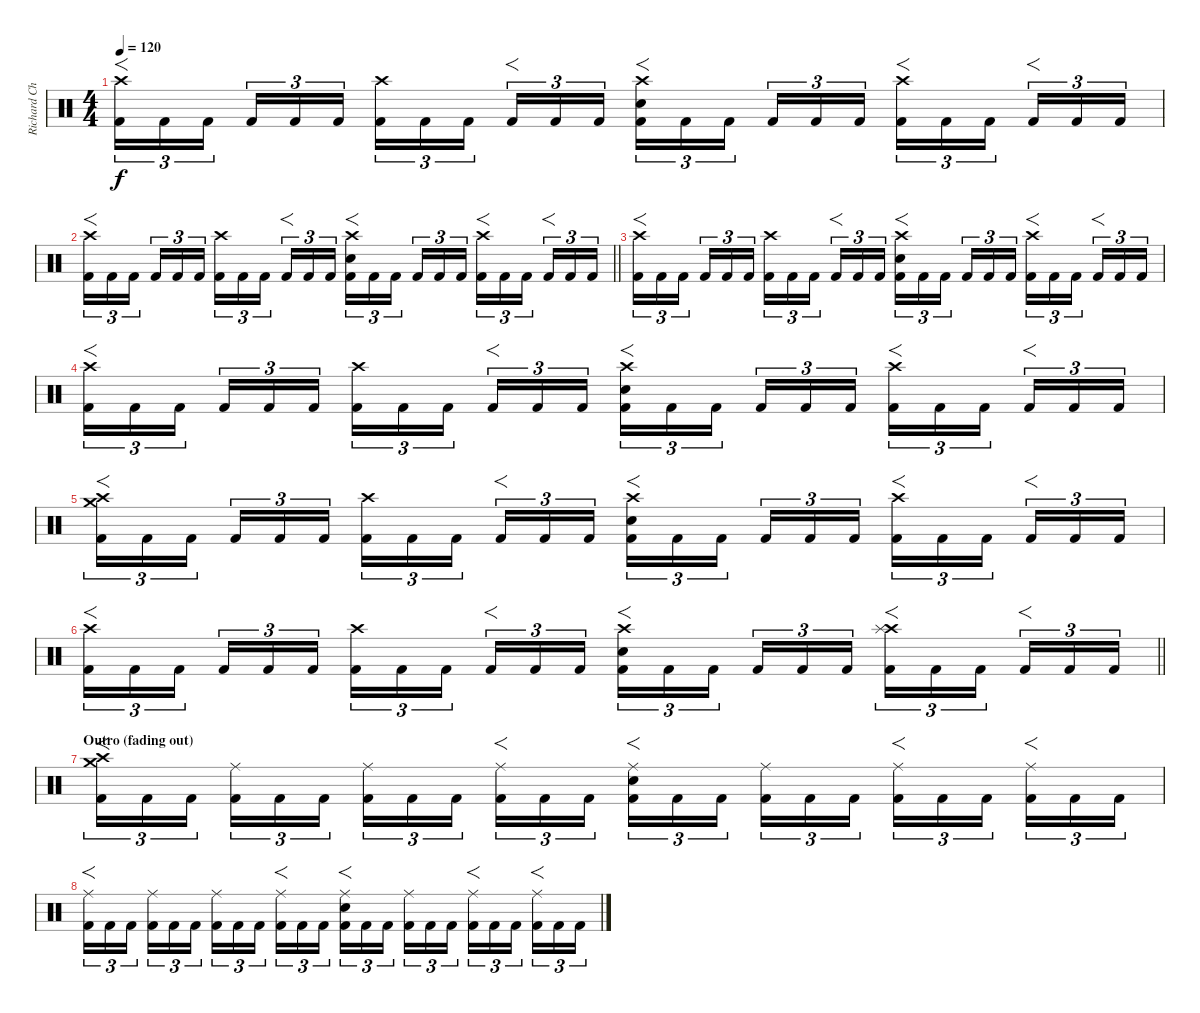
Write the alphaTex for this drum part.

\track ("Richard Christy" "Richard Ch") {instrument percussion}
\staff {score}
\articulation defaults
\ts (4 4)
\tempo 120
\clef neutral
\ks c
("Crash high (hit)" "Kick (hit) 2").16{f tu (3 2) dy f} "Kick (hit) 2".16{tu (3 2)} "Kick (hit) 2".16{tu (3 2) beam splitsecondary} "Kick (hit) 2".16{tu (3 2)} "Kick (hit) 2".16{tu (3 2)} "Kick (hit) 2".16{tu (3 2)} ("Crash high (hit)" "Kick (hit) 2").16{tu (3 2)} "Kick (hit) 2".16{tu (3 2)} "Kick (hit) 2".16{tu (3 2) beam splitsecondary} "Kick (hit) 2".16{f tu (3 2)} "Kick (hit) 2".16{tu (3 2)} "Kick (hit) 2".16{tu (3 2)} ("Crash high (hit)" "Snare (hit) 2" "Kick (hit) 2").16{f tu (3 2)} "Kick (hit) 2".16{tu (3 2)} "Kick (hit) 2".16{tu (3 2) beam splitsecondary} "Kick (hit) 2".16{tu (3 2)} "Kick (hit) 2".16{tu (3 2)} "Kick (hit) 2".16{tu (3 2)} ("Crash high (hit)" "Kick (hit) 2").16{f tu (3 2)} "Kick (hit) 2".16{tu (3 2)} "Kick (hit) 2".16{tu (3 2) beam splitsecondary} "Kick (hit) 2".16{f tu (3 2)} "Kick (hit) 2".16{tu (3 2)} "Kick (hit) 2".16{tu (3 2)} |
\barLineRight lightlight
("Crash high (hit)" "Kick (hit) 2").16{f tu (3 2)} "Kick (hit) 2".16{tu (3 2)} "Kick (hit) 2".16{tu (3 2) beam splitsecondary} "Kick (hit) 2".16{tu (3 2)} "Kick (hit) 2".16{tu (3 2)} "Kick (hit) 2".16{tu (3 2)} ("Crash high (hit)" "Kick (hit) 2").16{tu (3 2)} "Kick (hit) 2".16{tu (3 2)} "Kick (hit) 2".16{tu (3 2) beam splitsecondary} "Kick (hit) 2".16{f tu (3 2)} "Kick (hit) 2".16{tu (3 2)} "Kick (hit) 2".16{tu (3 2)} ("Crash high (hit)" "Snare (hit) 2" "Kick (hit) 2").16{f tu (3 2)} "Kick (hit) 2".16{tu (3 2)} "Kick (hit) 2".16{tu (3 2) beam splitsecondary} "Kick (hit) 2".16{tu (3 2)} "Kick (hit) 2".16{tu (3 2)} "Kick (hit) 2".16{tu (3 2)} ("Crash high (hit)" "Kick (hit) 2").16{f tu (3 2)} "Kick (hit) 2".16{tu (3 2)} "Kick (hit) 2".16{tu (3 2) beam splitsecondary} "Kick (hit) 2".16{f tu (3 2)} "Kick (hit) 2".16{tu (3 2)} "Kick (hit) 2".16{tu (3 2)} |
("Crash high (hit)" "Kick (hit) 2").16{f tu (3 2)} "Kick (hit) 2".16{tu (3 2)} "Kick (hit) 2".16{tu (3 2) beam splitsecondary} "Kick (hit) 2".16{tu (3 2)} "Kick (hit) 2".16{tu (3 2)} "Kick (hit) 2".16{tu (3 2)} ("Crash high (hit)" "Kick (hit) 2").16{tu (3 2)} "Kick (hit) 2".16{tu (3 2)} "Kick (hit) 2".16{tu (3 2) beam splitsecondary} "Kick (hit) 2".16{f tu (3 2)} "Kick (hit) 2".16{tu (3 2)} "Kick (hit) 2".16{tu (3 2)} ("Crash high (hit)" "Snare (hit) 2" "Kick (hit) 2").16{f tu (3 2)} "Kick (hit) 2".16{tu (3 2)} "Kick (hit) 2".16{tu (3 2) beam splitsecondary} "Kick (hit) 2".16{tu (3 2)} "Kick (hit) 2".16{tu (3 2)} "Kick (hit) 2".16{tu (3 2)} ("Crash high (hit)" "Kick (hit) 2").16{f tu (3 2)} "Kick (hit) 2".16{tu (3 2)} "Kick (hit) 2".16{tu (3 2) beam splitsecondary} "Kick (hit) 2".16{f tu (3 2)} "Kick (hit) 2".16{tu (3 2)} "Kick (hit) 2".16{tu (3 2)} |
("Crash high (hit)" "Kick (hit) 2").16{f tu (3 2)} "Kick (hit) 2".16{tu (3 2)} "Kick (hit) 2".16{tu (3 2) beam splitsecondary} "Kick (hit) 2".16{tu (3 2)} "Kick (hit) 2".16{tu (3 2)} "Kick (hit) 2".16{tu (3 2)} ("Crash high (hit)" "Kick (hit) 2").16{tu (3 2)} "Kick (hit) 2".16{tu (3 2)} "Kick (hit) 2".16{tu (3 2) beam splitsecondary} "Kick (hit) 2".16{f tu (3 2)} "Kick (hit) 2".16{tu (3 2)} "Kick (hit) 2".16{tu (3 2)} ("Crash high (hit)" "Snare (hit) 2" "Kick (hit) 2").16{f tu (3 2)} "Kick (hit) 2".16{tu (3 2)} "Kick (hit) 2".16{tu (3 2) beam splitsecondary} "Kick (hit) 2".16{tu (3 2)} "Kick (hit) 2".16{tu (3 2)} "Kick (hit) 2".16{tu (3 2)} ("Crash high (hit)" "Kick (hit) 2").16{f tu (3 2)} "Kick (hit) 2".16{tu (3 2)} "Kick (hit) 2".16{tu (3 2) beam splitsecondary} "Kick (hit) 2".16{f tu (3 2)} "Kick (hit) 2".16{tu (3 2)} "Kick (hit) 2".16{tu (3 2)} |
("Crash high (hit)" "Crash medium (hit)" "Kick (hit) 2").16{f tu (3 2)} "Kick (hit) 2".16{tu (3 2)} "Kick (hit) 2".16{tu (3 2) beam splitsecondary} "Kick (hit) 2".16{tu (3 2)} "Kick (hit) 2".16{tu (3 2)} "Kick (hit) 2".16{tu (3 2)} ("Crash high (hit)" "Kick (hit) 2").16{tu (3 2)} "Kick (hit) 2".16{tu (3 2)} "Kick (hit) 2".16{tu (3 2) beam splitsecondary} "Kick (hit) 2".16{f tu (3 2)} "Kick (hit) 2".16{tu (3 2)} "Kick (hit) 2".16{tu (3 2)} ("Crash high (hit)" "Snare (hit) 2" "Kick (hit) 2").16{f tu (3 2)} "Kick (hit) 2".16{tu (3 2)} "Kick (hit) 2".16{tu (3 2) beam splitsecondary} "Kick (hit) 2".16{tu (3 2)} "Kick (hit) 2".16{tu (3 2)} "Kick (hit) 2".16{tu (3 2)} ("Crash high (hit)" "Kick (hit) 2").16{f tu (3 2)} "Kick (hit) 2".16{tu (3 2)} "Kick (hit) 2".16{tu (3 2) beam splitsecondary} "Kick (hit) 2".16{f tu (3 2)} "Kick (hit) 2".16{tu (3 2)} "Kick (hit) 2".16{tu (3 2)} |
\barLineRight lightlight
("Crash high (hit)" "Kick (hit) 2").16{f tu (3 2)} "Kick (hit) 2".16{tu (3 2)} "Kick (hit) 2".16{tu (3 2) beam splitsecondary} "Kick (hit) 2".16{tu (3 2)} "Kick (hit) 2".16{tu (3 2)} "Kick (hit) 2".16{tu (3 2)} ("Crash high (hit)" "Kick (hit) 2").16{tu (3 2)} "Kick (hit) 2".16{tu (3 2)} "Kick (hit) 2".16{tu (3 2) beam splitsecondary} "Kick (hit) 2".16{f tu (3 2)} "Kick (hit) 2".16{tu (3 2)} "Kick (hit) 2".16{tu (3 2)} ("Crash high (hit)" "Snare (hit) 2" "Kick (hit) 2").16{f tu (3 2)} "Kick (hit) 2".16{tu (3 2)} "Kick (hit) 2".16{tu (3 2) beam splitsecondary} "Kick (hit) 2".16{tu (3 2)} "Kick (hit) 2".16{tu (3 2)} "Kick (hit) 2".16{tu (3 2)} ("Crash high (hit)" "Splash (hit)" "Kick (hit) 2").16{f tu (3 2)} "Kick (hit) 2".16{tu (3 2)} "Kick (hit) 2".16{tu (3 2) beam splitsecondary} "Kick (hit) 2".16{f tu (3 2)} "Kick (hit) 2".16{tu (3 2)} "Kick (hit) 2".16{tu (3 2)} |
\section ("" "Outro (fading out)")
("Crash high (hit)" "Crash medium (hit)" "Kick (hit) 2").16{f tu (3 2)} "Kick (hit) 2".16{tu (3 2)} "Kick (hit) 2".16{tu (3 2) beam splitsecondary} ("Ride (middle)" "Kick (hit) 2").16{tu (3 2)} "Kick (hit) 2".16{tu (3 2)} "Kick (hit) 2".16{tu (3 2)} ("Ride (middle)" "Kick (hit) 2").16{tu (3 2)} "Kick (hit) 2".16{tu (3 2)} "Kick (hit) 2".16{tu (3 2) beam splitsecondary} ("Ride (middle)" "Kick (hit) 2").16{f tu (3 2)} "Kick (hit) 2".16{tu (3 2)} "Kick (hit) 2".16{tu (3 2)} ("Ride (middle)" "Snare (hit) 2" "Kick (hit) 2").16{f tu (3 2)} "Kick (hit) 2".16{tu (3 2)} "Kick (hit) 2".16{tu (3 2) beam splitsecondary} ("Ride (middle)" "Kick (hit) 2").16{tu (3 2)} "Kick (hit) 2".16{tu (3 2)} "Kick (hit) 2".16{tu (3 2)} ("Ride (middle)" "Kick (hit) 2").16{f tu (3 2)} "Kick (hit) 2".16{tu (3 2)} "Kick (hit) 2".16{tu (3 2) beam splitsecondary} ("Ride (middle)" "Kick (hit) 2").16{f tu (3 2)} "Kick (hit) 2".16{tu (3 2)} "Kick (hit) 2".16{tu (3 2)} |
("Ride (middle)" "Kick (hit) 2").16{f tu (3 2)} "Kick (hit) 2".16{tu (3 2)} "Kick (hit) 2".16{tu (3 2) beam splitsecondary} ("Ride (middle)" "Kick (hit) 2").16{tu (3 2)} "Kick (hit) 2".16{tu (3 2)} "Kick (hit) 2".16{tu (3 2)} ("Ride (middle)" "Kick (hit) 2").16{tu (3 2)} "Kick (hit) 2".16{tu (3 2)} "Kick (hit) 2".16{tu (3 2) beam splitsecondary} ("Ride (middle)" "Kick (hit) 2").16{f tu (3 2)} "Kick (hit) 2".16{tu (3 2)} "Kick (hit) 2".16{tu (3 2)} ("Ride (middle)" "Snare (hit) 2" "Kick (hit) 2").16{f tu (3 2)} "Kick (hit) 2".16{tu (3 2)} "Kick (hit) 2".16{tu (3 2) beam splitsecondary} ("Ride (middle)" "Kick (hit) 2").16{tu (3 2)} "Kick (hit) 2".16{tu (3 2)} "Kick (hit) 2".16{tu (3 2)} ("Ride (middle)" "Kick (hit) 2").16{f tu (3 2)} "Kick (hit) 2".16{tu (3 2)} "Kick (hit) 2".16{tu (3 2) beam splitsecondary} ("Ride (middle)" "Kick (hit) 2").16{f tu (3 2)} "Kick (hit) 2".16{tu (3 2)} "Kick (hit) 2".16{tu (3 2)}
